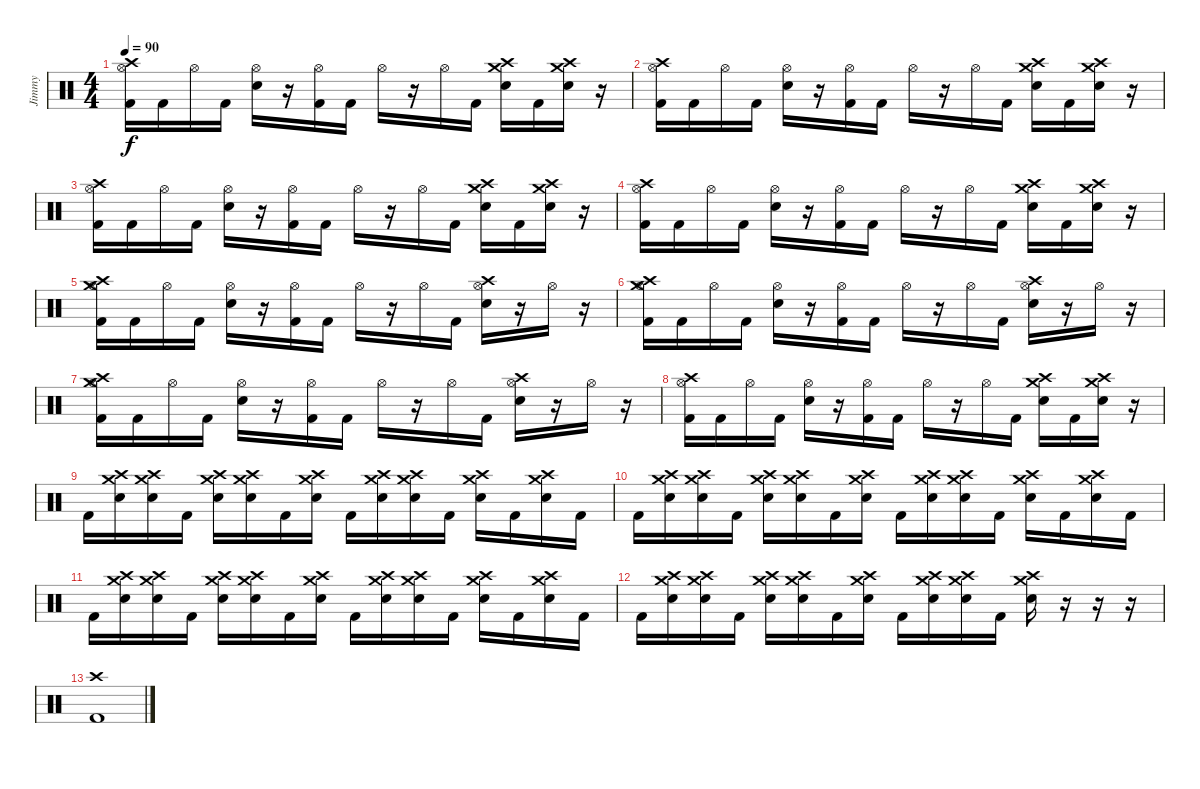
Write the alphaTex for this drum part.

\track ("Jimmy" "Jimmy") {instrument percussion}
\staff {score}
\articulation defaults
\ts (4 4)
\tempo 90
\clef neutral
\ks c
("Kick (hit) 2" "Hi-Hat (open)" "Crash high (hit)").16{dy f} "Kick (hit) 2".16 "Hi-Hat (open)".16 "Kick (hit) 2".16 ("Electric Snare (hit)" "Hi-Hat (open)").16 r.16 ("Kick (hit) 2" "Hi-Hat (open)").16 "Kick (hit) 2".16 "Hi-Hat (open)".16 r.16 "Hi-Hat (open)".16 "Kick (hit) 2".16 ("Electric Snare (hit)" "Crash high (hit)" "Crash medium (hit)").16 "Kick (hit) 2".16 ("Electric Snare (hit)" "Crash high (hit)" "Crash medium (hit)").16 r.16 |
("Kick (hit) 2" "Hi-Hat (open)" "Crash high (hit)").16 "Kick (hit) 2".16 "Hi-Hat (open)".16 "Kick (hit) 2".16 ("Electric Snare (hit)" "Hi-Hat (open)").16 r.16 ("Kick (hit) 2" "Hi-Hat (open)").16 "Kick (hit) 2".16 "Hi-Hat (open)".16 r.16 "Hi-Hat (open)".16 "Kick (hit) 2".16 ("Electric Snare (hit)" "Crash high (hit)" "Crash medium (hit)").16 "Kick (hit) 2".16 ("Electric Snare (hit)" "Crash high (hit)" "Crash medium (hit)").16 r.16 |
("Kick (hit) 2" "Hi-Hat (open)" "Crash high (hit)").16 "Kick (hit) 2".16 "Hi-Hat (open)".16 "Kick (hit) 2".16 ("Electric Snare (hit)" "Hi-Hat (open)").16 r.16 ("Kick (hit) 2" "Hi-Hat (open)").16 "Kick (hit) 2".16 "Hi-Hat (open)".16 r.16 "Hi-Hat (open)".16 "Kick (hit) 2".16 ("Electric Snare (hit)" "Crash high (hit)" "Crash medium (hit)").16 "Kick (hit) 2".16 ("Electric Snare (hit)" "Crash high (hit)" "Crash medium (hit)").16 r.16 |
("Kick (hit) 2" "Hi-Hat (open)" "Crash high (hit)").16 "Kick (hit) 2".16 "Hi-Hat (open)".16 "Kick (hit) 2".16 ("Electric Snare (hit)" "Hi-Hat (open)").16 r.16 ("Kick (hit) 2" "Hi-Hat (open)").16 "Kick (hit) 2".16 "Hi-Hat (open)".16 r.16 "Hi-Hat (open)".16 "Kick (hit) 2".16 ("Electric Snare (hit)" "Crash high (hit)" "Crash medium (hit)").16 "Kick (hit) 2".16 ("Electric Snare (hit)" "Crash high (hit)" "Crash medium (hit)").16 r.16 |
("Kick (hit) 2" "Hi-Hat (open)" "Crash high (hit)" "Crash medium (hit)").16 "Kick (hit) 2".16 "Hi-Hat (open)".16 "Kick (hit) 2".16 ("Electric Snare (hit)" "Hi-Hat (open)").16 r.16 ("Kick (hit) 2" "Hi-Hat (open)").16 "Kick (hit) 2".16 "Hi-Hat (open)".16 r.16 "Hi-Hat (open)".16 "Kick (hit) 2".16 ("Electric Snare (hit)" "Hi-Hat (open)" "Crash high (hit)").16 r.16 "Hi-Hat (open)".16 r.16 |
("Kick (hit) 2" "Hi-Hat (open)" "Crash high (hit)" "Crash medium (hit)").16 "Kick (hit) 2".16 "Hi-Hat (open)".16 "Kick (hit) 2".16 ("Electric Snare (hit)" "Hi-Hat (open)").16 r.16 ("Kick (hit) 2" "Hi-Hat (open)").16 "Kick (hit) 2".16 "Hi-Hat (open)".16 r.16 "Hi-Hat (open)".16 "Kick (hit) 2".16 ("Electric Snare (hit)" "Hi-Hat (open)" "Crash high (hit)").16 r.16 "Hi-Hat (open)".16 r.16 |
("Kick (hit) 2" "Hi-Hat (open)" "Crash high (hit)" "Crash medium (hit)").16 "Kick (hit) 2".16 "Hi-Hat (open)".16 "Kick (hit) 2".16 ("Electric Snare (hit)" "Hi-Hat (open)").16 r.16 ("Kick (hit) 2" "Hi-Hat (open)").16 "Kick (hit) 2".16 "Hi-Hat (open)".16 r.16 "Hi-Hat (open)".16 "Kick (hit) 2".16 ("Electric Snare (hit)" "Hi-Hat (open)" "Crash high (hit)").16 r.16 "Hi-Hat (open)".16 r.16 |
("Kick (hit) 2" "Hi-Hat (open)" "Crash high (hit)").16 "Kick (hit) 2".16 "Hi-Hat (open)".16 "Kick (hit) 2".16 ("Electric Snare (hit)" "Hi-Hat (open)").16 r.16 ("Kick (hit) 2" "Hi-Hat (open)").16 "Kick (hit) 2".16 "Hi-Hat (open)".16 r.16 "Hi-Hat (open)".16 "Kick (hit) 2".16 ("Electric Snare (hit)" "Crash high (hit)" "Crash medium (hit)").16 "Kick (hit) 2".16 ("Electric Snare (hit)" "Crash high (hit)" "Crash medium (hit)").16 r.16 |
"Kick (hit) 2".16 ("Electric Snare (hit)" "Crash high (hit)" "Crash medium (hit)").16 ("Electric Snare (hit)" "Crash high (hit)" "Crash medium (hit)").16 "Kick (hit) 2".16 ("Electric Snare (hit)" "Crash high (hit)" "Crash medium (hit)").16 ("Electric Snare (hit)" "Crash high (hit)" "Crash medium (hit)").16 "Kick (hit) 2".16 ("Electric Snare (hit)" "Crash high (hit)" "Crash medium (hit)").16 "Kick (hit) 2".16 ("Electric Snare (hit)" "Crash high (hit)" "Crash medium (hit)").16 ("Electric Snare (hit)" "Crash high (hit)" "Crash medium (hit)").16 "Kick (hit) 2".16 ("Electric Snare (hit)" "Crash high (hit)" "Crash medium (hit)").16 "Kick (hit) 2".16 ("Electric Snare (hit)" "Crash high (hit)" "Crash medium (hit)").16 "Kick (hit) 2".16 |
"Kick (hit) 2".16 ("Electric Snare (hit)" "Crash high (hit)" "Crash medium (hit)").16 ("Electric Snare (hit)" "Crash high (hit)" "Crash medium (hit)").16 "Kick (hit) 2".16 ("Electric Snare (hit)" "Crash high (hit)" "Crash medium (hit)").16 ("Electric Snare (hit)" "Crash high (hit)" "Crash medium (hit)").16 "Kick (hit) 2".16 ("Electric Snare (hit)" "Crash high (hit)" "Crash medium (hit)").16 "Kick (hit) 2".16 ("Electric Snare (hit)" "Crash high (hit)" "Crash medium (hit)").16 ("Electric Snare (hit)" "Crash high (hit)" "Crash medium (hit)").16 "Kick (hit) 2".16 ("Electric Snare (hit)" "Crash high (hit)" "Crash medium (hit)").16 "Kick (hit) 2".16 ("Electric Snare (hit)" "Crash high (hit)" "Crash medium (hit)").16 "Kick (hit) 2".16 |
"Kick (hit) 2".16 ("Electric Snare (hit)" "Crash high (hit)" "Crash medium (hit)").16 ("Electric Snare (hit)" "Crash high (hit)" "Crash medium (hit)").16 "Kick (hit) 2".16 ("Electric Snare (hit)" "Crash high (hit)" "Crash medium (hit)").16 ("Electric Snare (hit)" "Crash high (hit)" "Crash medium (hit)").16 "Kick (hit) 2".16 ("Electric Snare (hit)" "Crash high (hit)" "Crash medium (hit)").16 "Kick (hit) 2".16 ("Electric Snare (hit)" "Crash high (hit)" "Crash medium (hit)").16 ("Electric Snare (hit)" "Crash high (hit)" "Crash medium (hit)").16 "Kick (hit) 2".16 ("Electric Snare (hit)" "Crash high (hit)" "Crash medium (hit)").16 "Kick (hit) 2".16 ("Electric Snare (hit)" "Crash high (hit)" "Crash medium (hit)").16 "Kick (hit) 2".16 |
"Kick (hit) 2".16 ("Electric Snare (hit)" "Crash high (hit)" "Crash medium (hit)").16 ("Electric Snare (hit)" "Crash high (hit)" "Crash medium (hit)").16 "Kick (hit) 2".16 ("Electric Snare (hit)" "Crash high (hit)" "Crash medium (hit)").16 ("Electric Snare (hit)" "Crash high (hit)" "Crash medium (hit)").16 "Kick (hit) 2".16 ("Electric Snare (hit)" "Crash high (hit)" "Crash medium (hit)").16 "Kick (hit) 2".16 ("Electric Snare (hit)" "Crash high (hit)" "Crash medium (hit)").16 ("Electric Snare (hit)" "Crash high (hit)" "Crash medium (hit)").16 "Kick (hit) 2".16 ("Electric Snare (hit)" "Crash high (hit)" "Crash medium (hit)").16 r.16 r.16 r.16 |
("Kick (hit) 2" "Crash high (hit)").1
